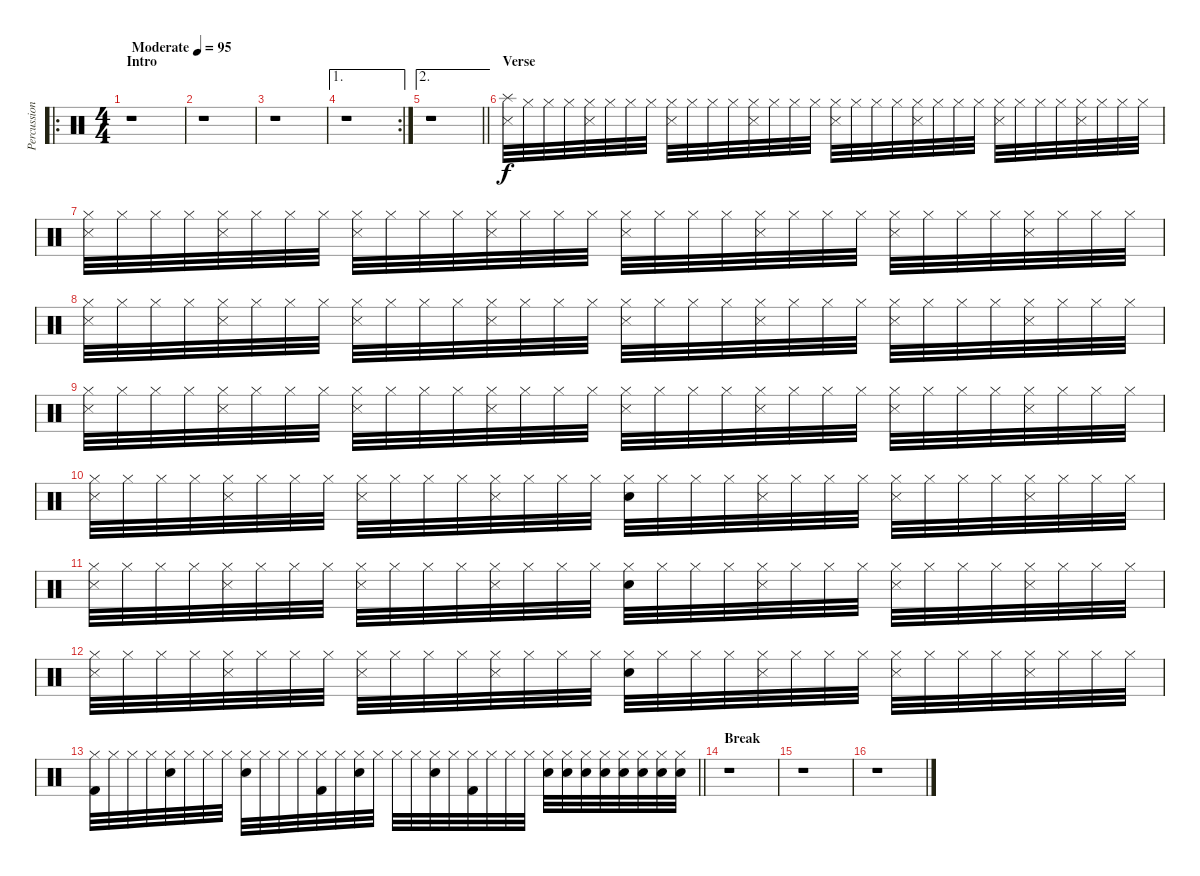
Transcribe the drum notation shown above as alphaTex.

\track ("Percussion" "Percussion") {instrument percussion}
\staff {score}
\articulation defaults
\ro
\ts (4 4)
\section ("" "Intro")
\tempo (95 "Moderate")
\clef neutral
\ks c
r.1{dy f} |
r.1 |
r.1 |
\ae 1
\rc 2
r.1 |
\ae 2
\barLineRight lightlight
r.1 |
\section ("" "Verse")
("Splash (hit)" "Snare (side stick) 3").32 "Hi-Hat (closed)".32 "Hi-Hat (closed)".32 "Hi-Hat (closed)".32 ("Hi-Hat (closed)" "Snare (side stick) 3").32 "Hi-Hat (closed)".32 "Hi-Hat (closed)".32 "Hi-Hat (closed)".32 ("Hi-Hat (closed)" "Snare (side stick) 3").32 "Hi-Hat (closed)".32 "Hi-Hat (closed)".32 "Hi-Hat (closed)".32 ("Hi-Hat (closed)" "Snare (side stick) 3").32 "Hi-Hat (closed)".32 "Hi-Hat (closed)".32 "Hi-Hat (closed)".32 ("Hi-Hat (closed)" "Snare (side stick) 3").32 "Hi-Hat (closed)".32 "Hi-Hat (closed)".32 "Hi-Hat (closed)".32 ("Hi-Hat (closed)" "Snare (side stick) 3").32 "Hi-Hat (closed)".32 "Hi-Hat (closed)".32 "Hi-Hat (closed)".32 ("Hi-Hat (closed)" "Snare (side stick) 3").32 "Hi-Hat (closed)".32 "Hi-Hat (closed)".32 "Hi-Hat (closed)".32 ("Hi-Hat (closed)" "Snare (side stick) 3").32 "Hi-Hat (closed)".32 "Hi-Hat (closed)".32 "Hi-Hat (closed)".32 |
("Hi-Hat (closed)" "Snare (side stick) 3").32 "Hi-Hat (closed)".32 "Hi-Hat (closed)".32 "Hi-Hat (closed)".32 ("Hi-Hat (closed)" "Snare (side stick) 3").32 "Hi-Hat (closed)".32 "Hi-Hat (closed)".32 "Hi-Hat (closed)".32 ("Hi-Hat (closed)" "Snare (side stick) 3").32 "Hi-Hat (closed)".32 "Hi-Hat (closed)".32 "Hi-Hat (closed)".32 ("Hi-Hat (closed)" "Snare (side stick) 3").32 "Hi-Hat (closed)".32 "Hi-Hat (closed)".32 "Hi-Hat (closed)".32 ("Hi-Hat (closed)" "Snare (side stick) 3").32 "Hi-Hat (closed)".32 "Hi-Hat (closed)".32 "Hi-Hat (closed)".32 ("Hi-Hat (closed)" "Snare (side stick) 3").32 "Hi-Hat (closed)".32 "Hi-Hat (closed)".32 "Hi-Hat (closed)".32 ("Hi-Hat (closed)" "Snare (side stick) 3").32 "Hi-Hat (closed)".32 "Hi-Hat (closed)".32 "Hi-Hat (closed)".32 ("Hi-Hat (closed)" "Snare (side stick) 3").32 "Hi-Hat (closed)".32 "Hi-Hat (closed)".32 "Hi-Hat (closed)".32 |
("Hi-Hat (closed)" "Snare (side stick) 3").32 "Hi-Hat (closed)".32 "Hi-Hat (closed)".32 "Hi-Hat (closed)".32 ("Hi-Hat (closed)" "Snare (side stick) 3").32 "Hi-Hat (closed)".32 "Hi-Hat (closed)".32 "Hi-Hat (closed)".32 ("Hi-Hat (closed)" "Snare (side stick) 3").32 "Hi-Hat (closed)".32 "Hi-Hat (closed)".32 "Hi-Hat (closed)".32 ("Hi-Hat (closed)" "Snare (side stick) 3").32 "Hi-Hat (closed)".32 "Hi-Hat (closed)".32 "Hi-Hat (closed)".32 ("Hi-Hat (closed)" "Snare (side stick) 3").32 "Hi-Hat (closed)".32 "Hi-Hat (closed)".32 "Hi-Hat (closed)".32 ("Hi-Hat (closed)" "Snare (side stick) 3").32 "Hi-Hat (closed)".32 "Hi-Hat (closed)".32 "Hi-Hat (closed)".32 ("Hi-Hat (closed)" "Snare (side stick) 3").32 "Hi-Hat (closed)".32 "Hi-Hat (closed)".32 "Hi-Hat (closed)".32 ("Hi-Hat (closed)" "Snare (side stick) 3").32 "Hi-Hat (closed)".32 "Hi-Hat (closed)".32 "Hi-Hat (closed)".32 |
("Hi-Hat (closed)" "Snare (side stick) 3").32 "Hi-Hat (closed)".32 "Hi-Hat (closed)".32 "Hi-Hat (closed)".32 ("Hi-Hat (closed)" "Snare (side stick) 3").32 "Hi-Hat (closed)".32 "Hi-Hat (closed)".32 "Hi-Hat (closed)".32 ("Hi-Hat (closed)" "Snare (side stick) 3").32 "Hi-Hat (closed)".32 "Hi-Hat (closed)".32 "Hi-Hat (closed)".32 ("Hi-Hat (closed)" "Snare (side stick) 3").32 "Hi-Hat (closed)".32 "Hi-Hat (closed)".32 "Hi-Hat (closed)".32 ("Hi-Hat (closed)" "Snare (side stick) 3").32 "Hi-Hat (closed)".32 "Hi-Hat (closed)".32 "Hi-Hat (closed)".32 ("Hi-Hat (closed)" "Snare (side stick) 3").32 "Hi-Hat (closed)".32 "Hi-Hat (closed)".32 "Hi-Hat (closed)".32 ("Hi-Hat (closed)" "Snare (side stick) 3").32 "Hi-Hat (closed)".32 "Hi-Hat (closed)".32 "Hi-Hat (closed)".32 ("Hi-Hat (closed)" "Snare (side stick) 3").32 "Hi-Hat (closed)".32 "Hi-Hat (closed)".32 "Hi-Hat (closed)".32 |
("Hi-Hat (closed)" "Snare (side stick) 3").32 "Hi-Hat (closed)".32 "Hi-Hat (closed)".32 "Hi-Hat (closed)".32 ("Hi-Hat (closed)" "Snare (side stick) 3").32 "Hi-Hat (closed)".32 "Hi-Hat (closed)".32 "Hi-Hat (closed)".32 ("Hi-Hat (closed)" "Snare (side stick) 3").32 "Hi-Hat (closed)".32 "Hi-Hat (closed)".32 "Hi-Hat (closed)".32 ("Hi-Hat (closed)" "Snare (side stick) 3").32 "Hi-Hat (closed)".32 "Hi-Hat (closed)".32 "Hi-Hat (closed)".32 ("Hi-Hat (closed)" "Electric Snare (hit)").32 "Hi-Hat (closed)".32 "Hi-Hat (closed)".32 "Hi-Hat (closed)".32 ("Hi-Hat (closed)" "Snare (side stick) 3").32 "Hi-Hat (closed)".32 "Hi-Hat (closed)".32 "Hi-Hat (closed)".32 ("Hi-Hat (closed)" "Snare (side stick) 3").32 "Hi-Hat (closed)".32 "Hi-Hat (closed)".32 "Hi-Hat (closed)".32 ("Hi-Hat (closed)" "Snare (side stick) 3").32 "Hi-Hat (closed)".32 "Hi-Hat (closed)".32 "Hi-Hat (closed)".32 |
("Hi-Hat (closed)" "Snare (side stick) 3").32 "Hi-Hat (closed)".32 "Hi-Hat (closed)".32 "Hi-Hat (closed)".32 ("Hi-Hat (closed)" "Snare (side stick) 3").32 "Hi-Hat (closed)".32 "Hi-Hat (closed)".32 "Hi-Hat (closed)".32 ("Hi-Hat (closed)" "Snare (side stick) 3").32 "Hi-Hat (closed)".32 "Hi-Hat (closed)".32 "Hi-Hat (closed)".32 ("Hi-Hat (closed)" "Snare (side stick) 3").32 "Hi-Hat (closed)".32 "Hi-Hat (closed)".32 "Hi-Hat (closed)".32 ("Hi-Hat (closed)" "Electric Snare (hit)").32 "Hi-Hat (closed)".32 "Hi-Hat (closed)".32 "Hi-Hat (closed)".32 ("Hi-Hat (closed)" "Snare (side stick) 3").32 "Hi-Hat (closed)".32 "Hi-Hat (closed)".32 "Hi-Hat (closed)".32 ("Hi-Hat (closed)" "Snare (side stick) 3").32 "Hi-Hat (closed)".32 "Hi-Hat (closed)".32 "Hi-Hat (closed)".32 ("Hi-Hat (closed)" "Snare (side stick) 3").32 "Hi-Hat (closed)".32 "Hi-Hat (closed)".32 "Hi-Hat (closed)".32 |
("Hi-Hat (closed)" "Snare (side stick) 3").32 "Hi-Hat (closed)".32 "Hi-Hat (closed)".32 "Hi-Hat (closed)".32 ("Hi-Hat (closed)" "Snare (side stick) 3").32 "Hi-Hat (closed)".32 "Hi-Hat (closed)".32 "Hi-Hat (closed)".32 ("Hi-Hat (closed)" "Snare (side stick) 3").32 "Hi-Hat (closed)".32 "Hi-Hat (closed)".32 "Hi-Hat (closed)".32 ("Hi-Hat (closed)" "Snare (side stick) 3").32 "Hi-Hat (closed)".32 "Hi-Hat (closed)".32 "Hi-Hat (closed)".32 ("Hi-Hat (closed)" "Electric Snare (hit)").32 "Hi-Hat (closed)".32 "Hi-Hat (closed)".32 "Hi-Hat (closed)".32 ("Hi-Hat (closed)" "Snare (side stick) 3").32 "Hi-Hat (closed)".32 "Hi-Hat (closed)".32 "Hi-Hat (closed)".32 ("Hi-Hat (closed)" "Snare (side stick) 3").32 "Hi-Hat (closed)".32 "Hi-Hat (closed)".32 "Hi-Hat (closed)".32 ("Hi-Hat (closed)" "Snare (side stick) 3").32 "Hi-Hat (closed)".32 "Hi-Hat (closed)".32 "Hi-Hat (closed)".32 |
\barLineRight lightlight
("Hi-Hat (closed)" "Kick (hit) 2").32 "Hi-Hat (closed)".32 "Hi-Hat (closed)".32 "Hi-Hat (closed)".32 ("Hi-Hat (closed)" "Electric Snare (hit)").32 "Hi-Hat (closed)".32 "Hi-Hat (closed)".32 "Hi-Hat (closed)".32 ("Hi-Hat (closed)" "Electric Snare (hit)").32 "Hi-Hat (closed)".32 "Hi-Hat (closed)".32 "Hi-Hat (closed)".32 ("Hi-Hat (closed)" "Kick (hit) 2").32 "Hi-Hat (closed)".32 ("Hi-Hat (closed)" "Electric Snare (hit)").32 "Hi-Hat (closed)".32 "Hi-Hat (closed)".32 "Hi-Hat (closed)".32 ("Hi-Hat (closed)" "Electric Snare (hit)").32 "Hi-Hat (closed)".32 ("Hi-Hat (closed)" "Kick (hit) 2").32 "Hi-Hat (closed)".32 "Hi-Hat (closed)".32 "Hi-Hat (closed)".32 ("Hi-Hat (closed)" "Electric Snare (hit)").32 ("Hi-Hat (closed)" "Electric Snare (hit)").32 ("Hi-Hat (closed)" "Electric Snare (hit)").32 ("Hi-Hat (closed)" "Electric Snare (hit)").32 ("Hi-Hat (closed)" "Electric Snare (hit)").32 ("Hi-Hat (closed)" "Electric Snare (hit)").32 ("Hi-Hat (closed)" "Electric Snare (hit)").32 ("Hi-Hat (closed)" "Electric Snare (hit)").32 |
\section ("" "Break")
r.1 |
r.1 |
r.1
